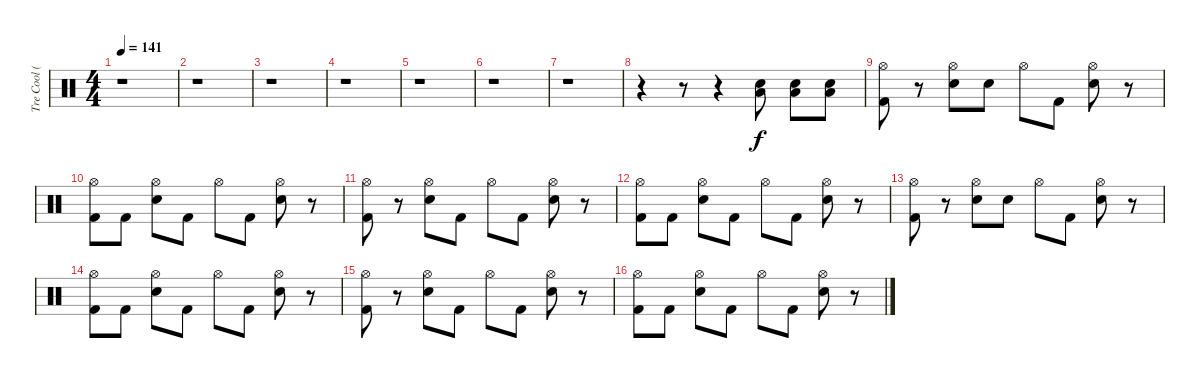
\track ("Tre Cool (Drums)" "Tre Cool (") {instrument percussion}
\staff {score}
\articulation defaults
\ts (4 4)
\tempo 141
\clef neutral
\ks c
r.1{dy f} |
r.1 |
r.1 |
r.1 |
r.1 |
r.1 |
r.1 |
r.4 r.8 r.4 ("Low Floor Tom (hit)" "Electric Snare (hit)").8 ("Low Floor Tom (hit)" "Electric Snare (hit)").8 ("Low Floor Tom (hit)" "Electric Snare (hit)").8 |
("Kick (hit) 2" "Hi-Hat (open)").8 r.8 ("Electric Snare (hit)" "Hi-Hat (open)").8 "Electric Snare (hit)".8 "Hi-Hat (open)".8 "Kick (hit) 2".8 ("Electric Snare (hit)" "Hi-Hat (open)").8 r.8 |
("Kick (hit) 2" "Hi-Hat (open)").8 "Kick (hit) 2".8 ("Electric Snare (hit)" "Hi-Hat (open)").8 "Kick (hit) 2".8 "Hi-Hat (open)".8 "Kick (hit) 2".8 ("Electric Snare (hit)" "Hi-Hat (open)").8 r.8 |
("Kick (hit) 2" "Hi-Hat (open)").8 r.8 ("Electric Snare (hit)" "Hi-Hat (open)").8 "Kick (hit) 2".8 "Hi-Hat (open)".8 "Kick (hit) 2".8 ("Electric Snare (hit)" "Hi-Hat (open)").8 r.8 |
("Kick (hit) 2" "Hi-Hat (open)").8 "Kick (hit) 2".8 ("Electric Snare (hit)" "Hi-Hat (open)").8 "Kick (hit) 2".8 "Hi-Hat (open)".8 "Kick (hit) 2".8 ("Electric Snare (hit)" "Hi-Hat (open)").8 r.8 |
("Kick (hit) 2" "Hi-Hat (open)").8 r.8 ("Electric Snare (hit)" "Hi-Hat (open)").8 "Electric Snare (hit)".8 "Hi-Hat (open)".8 "Kick (hit) 2".8 ("Electric Snare (hit)" "Hi-Hat (open)").8 r.8 |
("Kick (hit) 2" "Hi-Hat (open)").8 "Kick (hit) 2".8 ("Electric Snare (hit)" "Hi-Hat (open)").8 "Kick (hit) 2".8 "Hi-Hat (open)".8 "Kick (hit) 2".8 ("Electric Snare (hit)" "Hi-Hat (open)").8 r.8 |
("Kick (hit) 2" "Hi-Hat (open)").8 r.8 ("Electric Snare (hit)" "Hi-Hat (open)").8 "Kick (hit) 2".8 "Hi-Hat (open)".8 "Kick (hit) 2".8 ("Electric Snare (hit)" "Hi-Hat (open)").8 r.8 |
("Kick (hit) 2" "Hi-Hat (open)").8 "Kick (hit) 2".8 ("Electric Snare (hit)" "Hi-Hat (open)").8 "Kick (hit) 2".8 "Hi-Hat (open)".8 "Kick (hit) 2".8 ("Electric Snare (hit)" "Hi-Hat (open)").8 r.8
